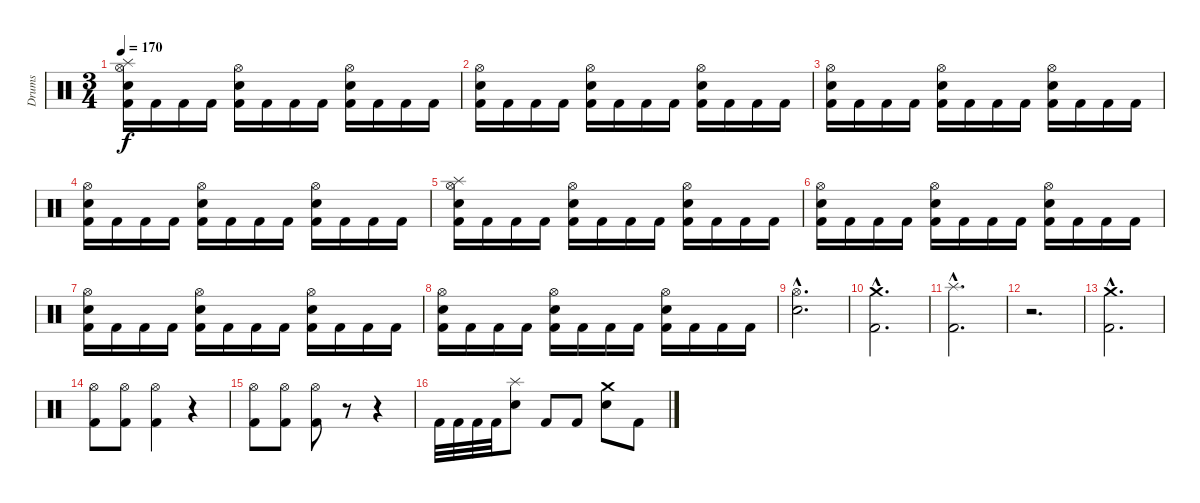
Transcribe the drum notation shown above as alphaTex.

\track ("Drums" "Drums") {instrument percussion}
\staff {score}
\articulation defaults
\ts (3 4)
\tempo 170
\clef neutral
\ks c
("Kick (hit) 2" "Snare (hit) 2" "Hi-Hat (open)" "Splash (hit)").16{dy f} "Kick (hit) 2".16 "Kick (hit) 2".16 "Kick (hit) 2".16 ("Kick (hit) 2" "Snare (hit) 2" "Hi-Hat (open)").16 "Kick (hit) 2".16 "Kick (hit) 2".16 "Kick (hit) 2".16 ("Kick (hit) 2" "Snare (hit) 2" "Hi-Hat (open)").16 "Kick (hit) 2".16 "Kick (hit) 2".16 "Kick (hit) 2".16 |
("Kick (hit) 2" "Snare (hit) 2" "Hi-Hat (open)").16 "Kick (hit) 2".16 "Kick (hit) 2".16 "Kick (hit) 2".16 ("Kick (hit) 2" "Snare (hit) 2" "Hi-Hat (open)").16 "Kick (hit) 2".16 "Kick (hit) 2".16 "Kick (hit) 2".16 ("Kick (hit) 2" "Snare (hit) 2" "Hi-Hat (open)").16 "Kick (hit) 2".16 "Kick (hit) 2".16 "Kick (hit) 2".16 |
("Kick (hit) 2" "Snare (hit) 2" "Hi-Hat (open)").16 "Kick (hit) 2".16 "Kick (hit) 2".16 "Kick (hit) 2".16 ("Kick (hit) 2" "Snare (hit) 2" "Hi-Hat (open)").16 "Kick (hit) 2".16 "Kick (hit) 2".16 "Kick (hit) 2".16 ("Kick (hit) 2" "Snare (hit) 2" "Hi-Hat (open)").16 "Kick (hit) 2".16 "Kick (hit) 2".16 "Kick (hit) 2".16 |
("Kick (hit) 2" "Snare (hit) 2" "Hi-Hat (open)").16 "Kick (hit) 2".16 "Kick (hit) 2".16 "Kick (hit) 2".16 ("Kick (hit) 2" "Snare (hit) 2" "Hi-Hat (open)").16 "Kick (hit) 2".16 "Kick (hit) 2".16 "Kick (hit) 2".16 ("Kick (hit) 2" "Snare (hit) 2" "Hi-Hat (open)").16 "Kick (hit) 2".16 "Kick (hit) 2".16 "Kick (hit) 2".16 |
("Kick (hit) 2" "Snare (hit) 2" "Hi-Hat (open)" "Splash (hit)").16 "Kick (hit) 2".16 "Kick (hit) 2".16 "Kick (hit) 2".16 ("Kick (hit) 2" "Snare (hit) 2" "Hi-Hat (open)").16 "Kick (hit) 2".16 "Kick (hit) 2".16 "Kick (hit) 2".16 ("Kick (hit) 2" "Snare (hit) 2" "Hi-Hat (open)").16 "Kick (hit) 2".16 "Kick (hit) 2".16 "Kick (hit) 2".16 |
("Kick (hit) 2" "Snare (hit) 2" "Hi-Hat (open)").16 "Kick (hit) 2".16 "Kick (hit) 2".16 "Kick (hit) 2".16 ("Kick (hit) 2" "Snare (hit) 2" "Hi-Hat (open)").16 "Kick (hit) 2".16 "Kick (hit) 2".16 "Kick (hit) 2".16 ("Kick (hit) 2" "Snare (hit) 2" "Hi-Hat (open)").16 "Kick (hit) 2".16 "Kick (hit) 2".16 "Kick (hit) 2".16 |
("Kick (hit) 2" "Snare (hit) 2" "Hi-Hat (open)").16 "Kick (hit) 2".16 "Kick (hit) 2".16 "Kick (hit) 2".16 ("Kick (hit) 2" "Snare (hit) 2" "Hi-Hat (open)").16 "Kick (hit) 2".16 "Kick (hit) 2".16 "Kick (hit) 2".16 ("Kick (hit) 2" "Snare (hit) 2" "Hi-Hat (open)").16 "Kick (hit) 2".16 "Kick (hit) 2".16 "Kick (hit) 2".16 |
("Kick (hit) 2" "Snare (hit) 2" "Hi-Hat (open)").16 "Kick (hit) 2".16 "Kick (hit) 2".16 "Kick (hit) 2".16 ("Kick (hit) 2" "Snare (hit) 2" "Hi-Hat (open)").16 "Kick (hit) 2".16 "Kick (hit) 2".16 "Kick (hit) 2".16 ("Kick (hit) 2" "Snare (hit) 2" "Hi-Hat (open)").16 "Kick (hit) 2".16 "Kick (hit) 2".16 "Kick (hit) 2".16 |
\section ("" "")
("Snare (hit) 2"{hac} "Hi-Hat (open)"{hac}).2{d} |
("Kick (hit) 2"{hac} "Crash medium (hit)"{hac}).2{d} |
("Kick (hit) 2"{hac} "Splash (hit)"{hac}).2{d} |
r.2{d} |
("Kick (hit) 2"{hac} "Crash medium (hit)"{hac}).2{d} |
("Kick (hit) 2" "Hi-Hat (open)").8 ("Kick (hit) 2" "Hi-Hat (open)").8 ("Kick (hit) 2" "Hi-Hat (open)").4 r.4 |
("Kick (hit) 2" "Hi-Hat (open)").8 ("Kick (hit) 2" "Hi-Hat (open)").8 ("Kick (hit) 2" "Hi-Hat (open)").8 r.8 r.4 |
"Kick (hit) 2".32 "Kick (hit) 2".32 "Kick (hit) 2".32 "Kick (hit) 2".32 ("Snare (hit) 2" "Splash (hit)").8 "Kick (hit) 2".8 "Kick (hit) 2".8 ("Snare (hit) 2" "Crash medium (hit)").8 "Kick (hit) 2".8
